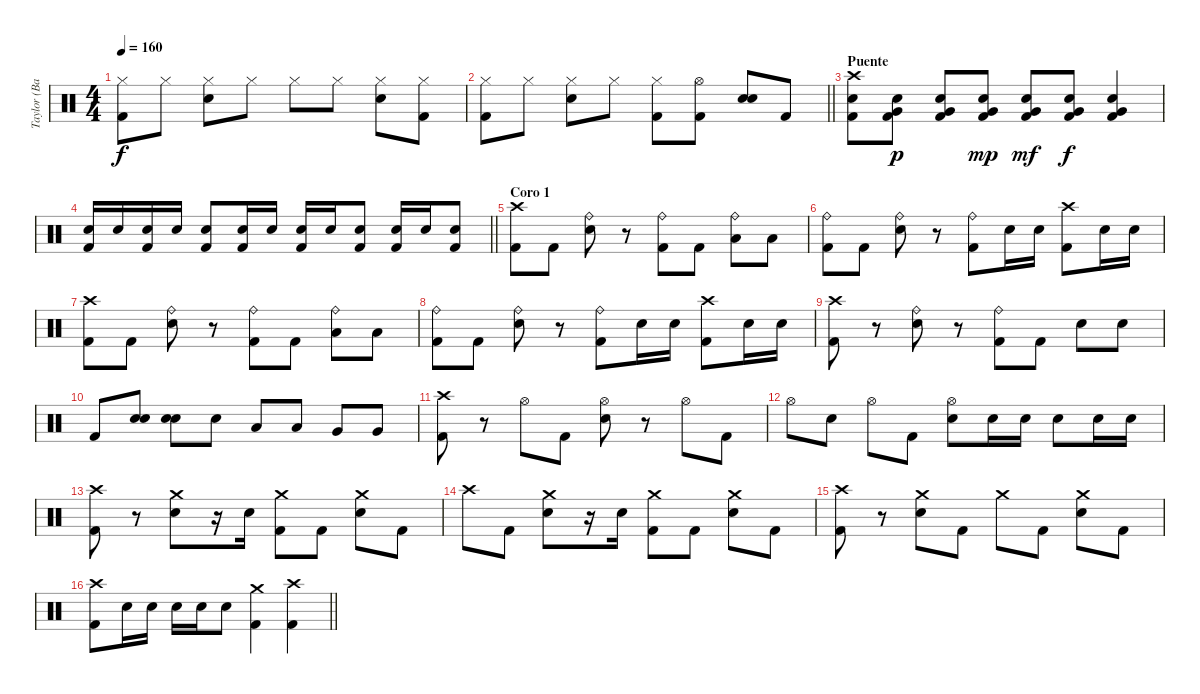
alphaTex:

\track ("Taylor (Batería)" "Taylor (Ba") {instrument percussion}
\staff {score}
\articulation defaults
\ts (4 4)
\tempo 160
\clef neutral
\ks c
("Hi-Hat (closed)" "Kick (hit) 2").8{dy f} "Hi-Hat (closed)".8 ("Hi-Hat (closed)" "Electric Snare (hit)").8 "Hi-Hat (closed)".8 "Hi-Hat (closed)".8 "Hi-Hat (closed)".8 ("Hi-Hat (closed)" "Electric Snare (hit)").8 ("Hi-Hat (closed)" "Kick (hit) 2").8 |
\barLineRight lightlight
("Hi-Hat (closed)" "Kick (hit) 2").8 "Hi-Hat (closed)".8 ("Hi-Hat (closed)" "Electric Snare (hit)").8 "Hi-Hat (closed)".8 ("Hi-Hat (closed)" "Kick (hit) 2").8 ("Hi-Hat (open)" "Kick (hit) 2").8 ("Electric Snare (hit)" "Electric Snare (hit)").8 "Kick (hit) 2".8 |
\section ("" "Puente")
("Crash high (hit)" "Electric Snare (hit)" "Kick (hit) 2").8 ("Electric Snare (hit)" "Very Low Tom (hit)" "Kick (hit) 2").8{dy p} ("Electric Snare (hit)" "Very Low Tom (hit)" "Kick (hit) 2").8 ("Electric Snare (hit)" "Very Low Tom (hit)" "Kick (hit) 2").8{dy mp} ("Electric Snare (hit)" "Very Low Tom (hit)" "Kick (hit) 2").8{dy mf} ("Electric Snare (hit)" "Very Low Tom (hit)" "Kick (hit) 2").8{dy f} ("Electric Snare (hit)" "Very Low Tom (hit)" "Kick (hit) 2").4 |
\barLineRight lightlight
("Electric Snare (hit)" "Kick (hit) 2").16 "Electric Snare (hit)".16 ("Electric Snare (hit)" "Kick (hit) 2").16 "Electric Snare (hit)".16 ("Electric Snare (hit)" "Kick (hit) 2").8 ("Electric Snare (hit)" "Kick (hit) 2").16 "Electric Snare (hit)".16 ("Electric Snare (hit)" "Kick (hit) 2").16 "Electric Snare (hit)".16 ("Electric Snare (hit)" "Kick (hit) 2").8 ("Electric Snare (hit)" "Kick (hit) 2").16 "Electric Snare (hit)".16 ("Electric Snare (hit)" "Kick (hit) 2").8 |
\section ("" "Coro 1")
("Crash high (hit)" "Kick (hit) 2").8 "Kick (hit) 2".8 ("Ride (bell)" "Electric Snare (hit)").8 r.8 ("Ride (bell)" "Kick (hit) 2").8 "Kick (hit) 2".8 ("Ride (bell)" "Low Tom (hit)").8 "Low Tom (hit)".8 |
("Ride (bell)" "Kick (hit) 2").8 "Kick (hit) 2".8 ("Ride (bell)" "Electric Snare (hit)").8 r.8 ("Ride (bell)" "Kick (hit) 2").8 "Electric Snare (hit)".16 "Electric Snare (hit)".16 ("Crash high (hit)" "Kick (hit) 2").8 "Electric Snare (hit)".16 "Electric Snare (hit)".16 |
("Crash high (hit)" "Kick (hit) 2").8 "Kick (hit) 2".8 ("Ride (bell)" "Electric Snare (hit)").8 r.8 ("Ride (bell)" "Kick (hit) 2").8 "Kick (hit) 2".8 ("Ride (bell)" "Low Tom (hit)").8 "Low Tom (hit)".8 |
("Ride (bell)" "Kick (hit) 2").8 "Kick (hit) 2".8 ("Ride (bell)" "Electric Snare (hit)").8 r.8 ("Ride (bell)" "Kick (hit) 2").8 "Electric Snare (hit)".16 "Electric Snare (hit)".16 ("Crash high (hit)" "Kick (hit) 2").8 "Electric Snare (hit)".16 "Electric Snare (hit)".16 |
("Crash high (hit)" "Kick (hit) 2").8 r.8 ("Ride (bell)" "Electric Snare (hit)").8 r.8 ("Ride (bell)" "Kick (hit) 2").8 "Kick (hit) 2".8 "Electric Snare (hit)".8 "Electric Snare (hit)".8 |
"Kick (hit) 2".8 ("Electric Snare (hit)" "Electric Snare (hit)").8 ("Electric Snare (hit)" "Electric Snare (hit)").8 "Electric Snare (hit)".8 "Low Tom (hit)".8 "Low Tom (hit)".8 "Very Low Tom (hit)".8 "Very Low Tom (hit)".8 |
("Crash high (hit)" "Kick (hit) 2").8 r.8 "Hi-Hat (open)".8 "Kick (hit) 2".8 ("Hi-Hat (open)" "Electric Snare (hit)").8 r.8 "Hi-Hat (open)".8 "Kick (hit) 2".8 |
"Hi-Hat (open)".8 "Electric Snare (hit)".8 "Hi-Hat (open)".8 "Kick (hit) 2".8 ("Hi-Hat (open)" "Electric Snare (hit)").8 "Electric Snare (hit)".16 "Electric Snare (hit)".16 "Electric Snare (hit)".8 "Electric Snare (hit)".16 "Electric Snare (hit)".16 |
("Crash high (hit)" "Kick (hit) 2").8 r.8 ("Crash medium (hit)" "Electric Snare (hit)").8 r.16 "Electric Snare (hit)".16 ("Crash medium (hit)" "Kick (hit) 2").8 "Kick (hit) 2".8 ("Crash medium (hit)" "Electric Snare (hit)").8 "Kick (hit) 2".8 |
"Crash high (hit)".8 "Kick (hit) 2".8 ("Crash medium (hit)" "Electric Snare (hit)").8 r.16 "Electric Snare (hit)".16 ("Crash medium (hit)" "Kick (hit) 2").8 "Kick (hit) 2".8 ("Crash medium (hit)" "Electric Snare (hit)").8 "Kick (hit) 2".8 |
("Crash high (hit)" "Kick (hit) 2").8 r.8 ("Crash medium (hit)" "Electric Snare (hit)").8 "Kick (hit) 2".8 "Crash medium (hit)".8 "Kick (hit) 2".8 ("Crash medium (hit)" "Electric Snare (hit)").8 "Kick (hit) 2".8 |
\barLineRight lightlight
("Crash high (hit)" "Kick (hit) 2").8 "Electric Snare (hit)".16 "Electric Snare (hit)".16 "Electric Snare (hit)".16 "Electric Snare (hit)".16 "Electric Snare (hit)".8 ("Crash medium (hit)" "Kick (hit) 2").4 ("Crash high (hit)" "Kick (hit) 2").4
